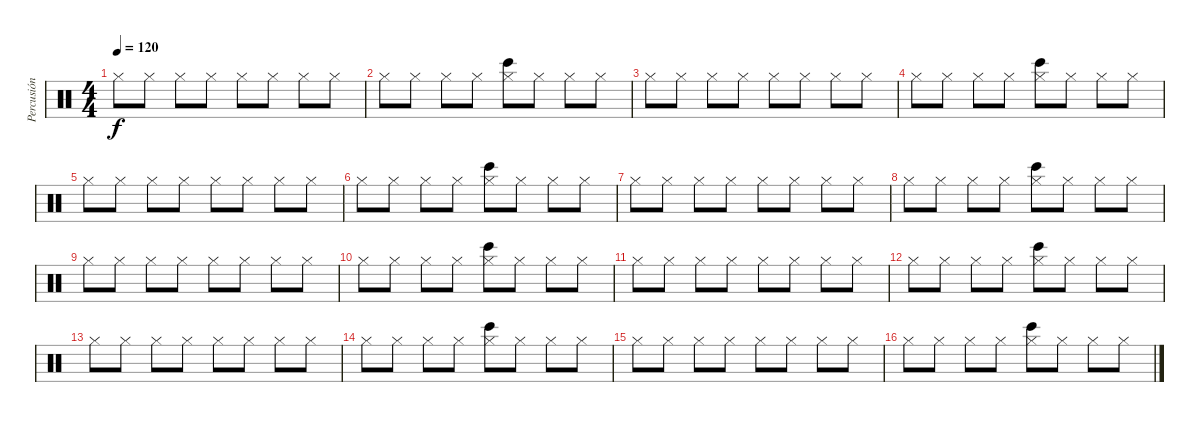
\track ("Percusión" "Percusión") {instrument percussion}
\staff {score}
\articulation defaults
\ts (4 4)
\tempo 120
\clef neutral
\ks c "Hi-Hat (closed)".8{dy f} "Hi-Hat (closed)".8 "Hi-Hat (closed)".8 "Hi-Hat (closed)".8 "Hi-Hat (closed)".8 "Hi-Hat (closed)".8 "Hi-Hat (closed)".8 "Hi-Hat (closed)".8
|
"Hi-Hat (closed)".8 "Hi-Hat (closed)".8 "Hi-Hat (closed)".8 "Hi-Hat (closed)".8 ("Hi-Hat (closed)" "Bongo High (hit)").8 "Hi-Hat (closed)".8 "Hi-Hat (closed)".8 "Hi-Hat (closed)".8 |
"Hi-Hat (closed)".8 "Hi-Hat (closed)".8 "Hi-Hat (closed)".8 "Hi-Hat (closed)".8 "Hi-Hat (closed)".8 "Hi-Hat (closed)".8 "Hi-Hat (closed)".8 "Hi-Hat (closed)".8 |
"Hi-Hat (closed)".8 "Hi-Hat (closed)".8 "Hi-Hat (closed)".8 "Hi-Hat (closed)".8 ("Hi-Hat (closed)" "Bongo High (hit)").8 "Hi-Hat (closed)".8 "Hi-Hat (closed)".8 "Hi-Hat (closed)".8 |
"Hi-Hat (closed)".8 "Hi-Hat (closed)".8 "Hi-Hat (closed)".8 "Hi-Hat (closed)".8 "Hi-Hat (closed)".8 "Hi-Hat (closed)".8 "Hi-Hat (closed)".8 "Hi-Hat (closed)".8 |
"Hi-Hat (closed)".8 "Hi-Hat (closed)".8 "Hi-Hat (closed)".8 "Hi-Hat (closed)".8 ("Hi-Hat (closed)" "Bongo High (hit)").8 "Hi-Hat (closed)".8 "Hi-Hat (closed)".8 "Hi-Hat (closed)".8 |
"Hi-Hat (closed)".8 "Hi-Hat (closed)".8 "Hi-Hat (closed)".8 "Hi-Hat (closed)".8 "Hi-Hat (closed)".8 "Hi-Hat (closed)".8 "Hi-Hat (closed)".8 "Hi-Hat (closed)".8 |
"Hi-Hat (closed)".8 "Hi-Hat (closed)".8 "Hi-Hat (closed)".8 "Hi-Hat (closed)".8 ("Hi-Hat (closed)" "Bongo High (hit)").8 "Hi-Hat (closed)".8 "Hi-Hat (closed)".8 "Hi-Hat (closed)".8 |
"Hi-Hat (closed)".8 "Hi-Hat (closed)".8 "Hi-Hat (closed)".8 "Hi-Hat (closed)".8 "Hi-Hat (closed)".8 "Hi-Hat (closed)".8 "Hi-Hat (closed)".8 "Hi-Hat (closed)".8 |
"Hi-Hat (closed)".8 "Hi-Hat (closed)".8 "Hi-Hat (closed)".8 "Hi-Hat (closed)".8 ("Hi-Hat (closed)" "Bongo High (hit)").8 "Hi-Hat (closed)".8 "Hi-Hat (closed)".8 "Hi-Hat (closed)".8 |
"Hi-Hat (closed)".8 "Hi-Hat (closed)".8 "Hi-Hat (closed)".8 "Hi-Hat (closed)".8 "Hi-Hat (closed)".8 "Hi-Hat (closed)".8 "Hi-Hat (closed)".8 "Hi-Hat (closed)".8 |
"Hi-Hat (closed)".8 "Hi-Hat (closed)".8 "Hi-Hat (closed)".8 "Hi-Hat (closed)".8 ("Hi-Hat (closed)" "Bongo High (hit)").8 "Hi-Hat (closed)".8 "Hi-Hat (closed)".8 "Hi-Hat (closed)".8 |
"Hi-Hat (closed)".8 "Hi-Hat (closed)".8 "Hi-Hat (closed)".8 "Hi-Hat (closed)".8 "Hi-Hat (closed)".8 "Hi-Hat (closed)".8 "Hi-Hat (closed)".8 "Hi-Hat (closed)".8 |
"Hi-Hat (closed)".8 "Hi-Hat (closed)".8 "Hi-Hat (closed)".8 "Hi-Hat (closed)".8 ("Hi-Hat (closed)" "Bongo High (hit)").8 "Hi-Hat (closed)".8 "Hi-Hat (closed)".8 "Hi-Hat (closed)".8 |
"Hi-Hat (closed)".8 "Hi-Hat (closed)".8 "Hi-Hat (closed)".8 "Hi-Hat (closed)".8 "Hi-Hat (closed)".8 "Hi-Hat (closed)".8 "Hi-Hat (closed)".8 "Hi-Hat (closed)".8 |
"Hi-Hat (closed)".8 "Hi-Hat (closed)".8 "Hi-Hat (closed)".8 "Hi-Hat (closed)".8 ("Hi-Hat (closed)" "Bongo High (hit)").8 "Hi-Hat (closed)".8 "Hi-Hat (closed)".8 "Hi-Hat (closed)".8
